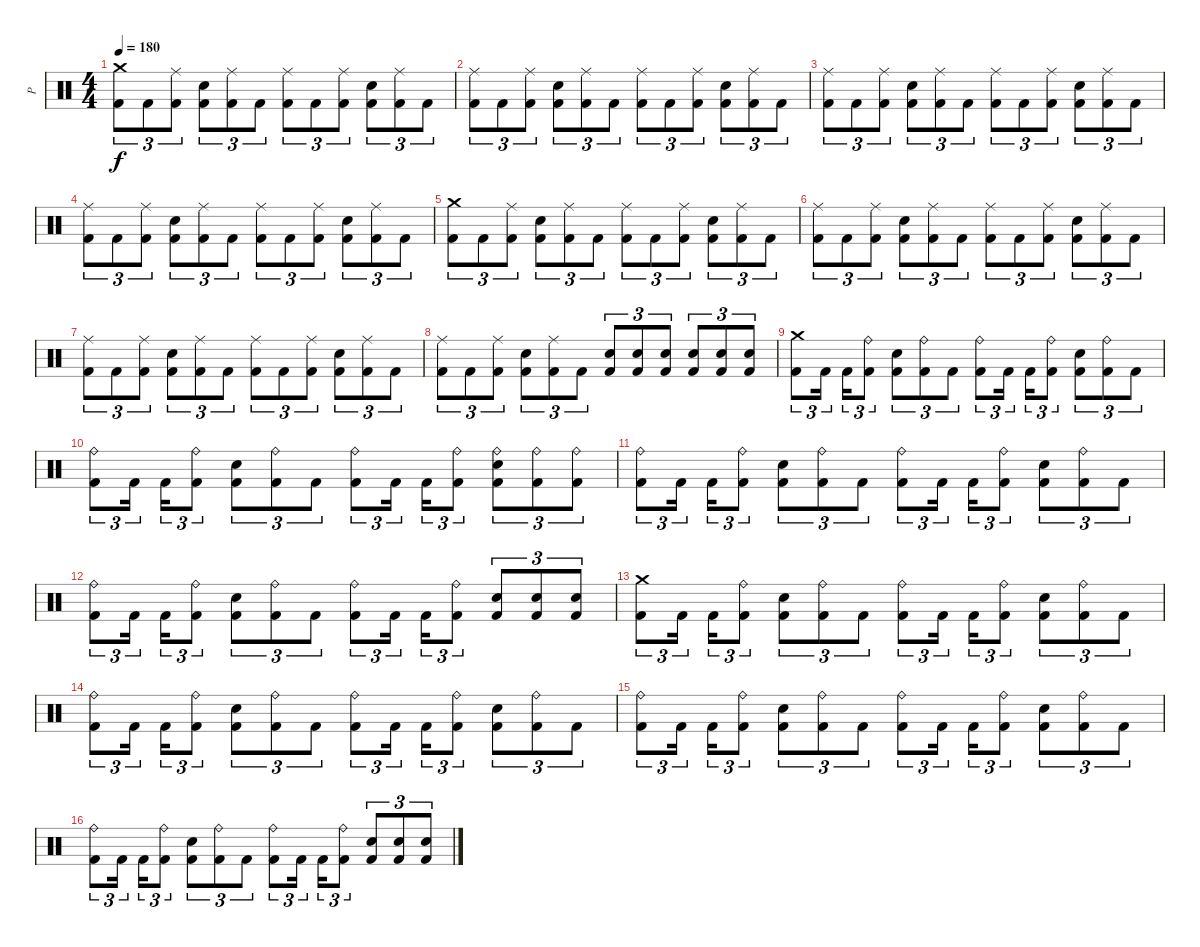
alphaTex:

\track ("P" "P") {instrument percussion}
\staff {score}
\articulation defaults
\ts (4 4)
\section ("" "")
\tempo 180
\clef neutral
\ks c
("Crash medium (hit)" "Kick (hit) 2").8{tu (3 2) dy f} "Kick (hit) 2".8{tu (3 2)} ("Ride (middle)" "Kick (hit) 2").8{tu (3 2)} ("Electric Snare (hit)" "Kick (hit) 2").8{tu (3 2)} ("Ride (middle)" "Kick (hit) 2").8{tu (3 2)} "Kick (hit) 2".8{tu (3 2)} ("Ride (middle)" "Kick (hit) 2").8{tu (3 2)} "Kick (hit) 2".8{tu (3 2)} ("Ride (middle)" "Kick (hit) 2").8{tu (3 2)} ("Electric Snare (hit)" "Kick (hit) 2").8{tu (3 2)} ("Ride (middle)" "Kick (hit) 2").8{tu (3 2)} "Kick (hit) 2".8{tu (3 2)} |
("Ride (middle)" "Kick (hit) 2").8{tu (3 2)} "Kick (hit) 2".8{tu (3 2)} ("Ride (middle)" "Kick (hit) 2").8{tu (3 2)} ("Electric Snare (hit)" "Kick (hit) 2").8{tu (3 2)} ("Ride (middle)" "Kick (hit) 2").8{tu (3 2)} "Kick (hit) 2".8{tu (3 2)} ("Ride (middle)" "Kick (hit) 2").8{tu (3 2)} "Kick (hit) 2".8{tu (3 2)} ("Ride (middle)" "Kick (hit) 2").8{tu (3 2)} ("Electric Snare (hit)" "Kick (hit) 2").8{tu (3 2)} ("Ride (middle)" "Kick (hit) 2").8{tu (3 2)} "Kick (hit) 2".8{tu (3 2)} |
("Ride (middle)" "Kick (hit) 2").8{tu (3 2)} "Kick (hit) 2".8{tu (3 2)} ("Ride (middle)" "Kick (hit) 2").8{tu (3 2)} ("Electric Snare (hit)" "Kick (hit) 2").8{tu (3 2)} ("Ride (middle)" "Kick (hit) 2").8{tu (3 2)} "Kick (hit) 2".8{tu (3 2)} ("Ride (middle)" "Kick (hit) 2").8{tu (3 2)} "Kick (hit) 2".8{tu (3 2)} ("Ride (middle)" "Kick (hit) 2").8{tu (3 2)} ("Electric Snare (hit)" "Kick (hit) 2").8{tu (3 2)} ("Ride (middle)" "Kick (hit) 2").8{tu (3 2)} "Kick (hit) 2".8{tu (3 2)} |
("Ride (middle)" "Kick (hit) 2").8{tu (3 2)} "Kick (hit) 2".8{tu (3 2)} ("Ride (middle)" "Kick (hit) 2").8{tu (3 2)} ("Electric Snare (hit)" "Kick (hit) 2").8{tu (3 2)} ("Ride (middle)" "Kick (hit) 2").8{tu (3 2)} "Kick (hit) 2".8{tu (3 2)} ("Ride (middle)" "Kick (hit) 2").8{tu (3 2)} "Kick (hit) 2".8{tu (3 2)} ("Ride (middle)" "Kick (hit) 2").8{tu (3 2)} ("Electric Snare (hit)" "Kick (hit) 2").8{tu (3 2)} ("Ride (middle)" "Kick (hit) 2").8{tu (3 2)} "Kick (hit) 2".8{tu (3 2)} |
("Crash medium (hit)" "Kick (hit) 2").8{tu (3 2)} "Kick (hit) 2".8{tu (3 2)} ("Ride (middle)" "Kick (hit) 2").8{tu (3 2)} ("Electric Snare (hit)" "Kick (hit) 2").8{tu (3 2)} ("Ride (middle)" "Kick (hit) 2").8{tu (3 2)} "Kick (hit) 2".8{tu (3 2)} ("Ride (middle)" "Kick (hit) 2").8{tu (3 2)} "Kick (hit) 2".8{tu (3 2)} ("Ride (middle)" "Kick (hit) 2").8{tu (3 2)} ("Electric Snare (hit)" "Kick (hit) 2").8{tu (3 2)} ("Ride (middle)" "Kick (hit) 2").8{tu (3 2)} "Kick (hit) 2".8{tu (3 2)} |
("Ride (middle)" "Kick (hit) 2").8{tu (3 2)} "Kick (hit) 2".8{tu (3 2)} ("Ride (middle)" "Kick (hit) 2").8{tu (3 2)} ("Electric Snare (hit)" "Kick (hit) 2").8{tu (3 2)} ("Ride (middle)" "Kick (hit) 2").8{tu (3 2)} "Kick (hit) 2".8{tu (3 2)} ("Ride (middle)" "Kick (hit) 2").8{tu (3 2)} "Kick (hit) 2".8{tu (3 2)} ("Ride (middle)" "Kick (hit) 2").8{tu (3 2)} ("Electric Snare (hit)" "Kick (hit) 2").8{tu (3 2)} ("Ride (middle)" "Kick (hit) 2").8{tu (3 2)} "Kick (hit) 2".8{tu (3 2)} |
("Ride (middle)" "Kick (hit) 2").8{tu (3 2)} "Kick (hit) 2".8{tu (3 2)} ("Ride (middle)" "Kick (hit) 2").8{tu (3 2)} ("Electric Snare (hit)" "Kick (hit) 2").8{tu (3 2)} ("Ride (middle)" "Kick (hit) 2").8{tu (3 2)} "Kick (hit) 2".8{tu (3 2)} ("Ride (middle)" "Kick (hit) 2").8{tu (3 2)} "Kick (hit) 2".8{tu (3 2)} ("Ride (middle)" "Kick (hit) 2").8{tu (3 2)} ("Electric Snare (hit)" "Kick (hit) 2").8{tu (3 2)} ("Ride (middle)" "Kick (hit) 2").8{tu (3 2)} "Kick (hit) 2".8{tu (3 2)} |
("Ride (middle)" "Kick (hit) 2").8{tu (3 2)} "Kick (hit) 2".8{tu (3 2)} ("Ride (middle)" "Kick (hit) 2").8{tu (3 2)} ("Electric Snare (hit)" "Kick (hit) 2").8{tu (3 2)} ("Ride (middle)" "Kick (hit) 2").8{tu (3 2)} "Kick (hit) 2".8{tu (3 2)} ("Electric Snare (hit)" "Kick (hit) 2").8{tu (3 2)} ("Electric Snare (hit)" "Kick (hit) 2").8{tu (3 2)} ("Electric Snare (hit)" "Kick (hit) 2").8{tu (3 2)} ("Electric Snare (hit)" "Kick (hit) 2").8{tu (3 2)} ("Electric Snare (hit)" "Kick (hit) 2").8{tu (3 2)} ("Electric Snare (hit)" "Kick (hit) 2").8{tu (3 2)} |
("Crash medium (hit)" "Kick (hit) 2").8{tu (3 2)} "Kick (hit) 2".16{tu (3 2)} "Kick (hit) 2".16{tu (3 2)} ("Ride (bell)" "Kick (hit) 2").8{tu (3 2)} ("Electric Snare (hit)" "Kick (hit) 2").8{tu (3 2)} ("Ride (bell)" "Kick (hit) 2").8{tu (3 2)} "Kick (hit) 2".8{tu (3 2)} ("Ride (bell)" "Kick (hit) 2").8{tu (3 2)} "Kick (hit) 2".16{tu (3 2)} "Kick (hit) 2".16{tu (3 2)} ("Ride (bell)" "Kick (hit) 2").8{tu (3 2)} ("Electric Snare (hit)" "Kick (hit) 2").8{tu (3 2)} ("Ride (bell)" "Kick (hit) 2").8{tu (3 2)} "Kick (hit) 2".8{tu (3 2)} |
("Ride (bell)" "Kick (hit) 2").8{tu (3 2)} "Kick (hit) 2".16{tu (3 2)} "Kick (hit) 2".16{tu (3 2)} ("Ride (bell)" "Kick (hit) 2").8{tu (3 2)} ("Electric Snare (hit)" "Kick (hit) 2").8{tu (3 2)} ("Ride (bell)" "Kick (hit) 2").8{tu (3 2)} "Kick (hit) 2".8{tu (3 2)} ("Ride (bell)" "Kick (hit) 2").8{tu (3 2)} "Kick (hit) 2".16{tu (3 2)} "Kick (hit) 2".16{tu (3 2)} ("Ride (bell)" "Kick (hit) 2").8{tu (3 2)} ("Ride (bell)" "Electric Snare (hit)" "Kick (hit) 2").8{tu (3 2)} ("Ride (bell)" "Kick (hit) 2").8{tu (3 2)} ("Ride (bell)" "Kick (hit) 2").8{tu (3 2)} |
("Ride (bell)" "Kick (hit) 2").8{tu (3 2)} "Kick (hit) 2".16{tu (3 2)} "Kick (hit) 2".16{tu (3 2)} ("Ride (bell)" "Kick (hit) 2").8{tu (3 2)} ("Electric Snare (hit)" "Kick (hit) 2").8{tu (3 2)} ("Ride (bell)" "Kick (hit) 2").8{tu (3 2)} "Kick (hit) 2".8{tu (3 2)} ("Ride (bell)" "Kick (hit) 2").8{tu (3 2)} "Kick (hit) 2".16{tu (3 2)} "Kick (hit) 2".16{tu (3 2)} ("Ride (bell)" "Kick (hit) 2").8{tu (3 2)} ("Electric Snare (hit)" "Kick (hit) 2").8{tu (3 2)} ("Ride (bell)" "Kick (hit) 2").8{tu (3 2)} "Kick (hit) 2".8{tu (3 2)} |
("Ride (bell)" "Kick (hit) 2").8{tu (3 2)} "Kick (hit) 2".16{tu (3 2)} "Kick (hit) 2".16{tu (3 2)} ("Ride (bell)" "Kick (hit) 2").8{tu (3 2)} ("Electric Snare (hit)" "Kick (hit) 2").8{tu (3 2)} ("Ride (bell)" "Kick (hit) 2").8{tu (3 2)} "Kick (hit) 2".8{tu (3 2)} ("Ride (bell)" "Kick (hit) 2").8{tu (3 2)} "Kick (hit) 2".16{tu (3 2)} "Kick (hit) 2".16{tu (3 2)} ("Ride (bell)" "Kick (hit) 2").8{tu (3 2)} ("Electric Snare (hit)" "Kick (hit) 2").8{tu (3 2)} ("Electric Snare (hit)" "Kick (hit) 2").8{tu (3 2)} ("Electric Snare (hit)" "Kick (hit) 2").8{tu (3 2)} |
("Crash medium (hit)" "Kick (hit) 2").8{tu (3 2)} "Kick (hit) 2".16{tu (3 2)} "Kick (hit) 2".16{tu (3 2)} ("Ride (bell)" "Kick (hit) 2").8{tu (3 2)} ("Electric Snare (hit)" "Kick (hit) 2").8{tu (3 2)} ("Ride (bell)" "Kick (hit) 2").8{tu (3 2)} "Kick (hit) 2".8{tu (3 2)} ("Ride (bell)" "Kick (hit) 2").8{tu (3 2)} "Kick (hit) 2".16{tu (3 2)} "Kick (hit) 2".16{tu (3 2)} ("Ride (bell)" "Kick (hit) 2").8{tu (3 2)} ("Electric Snare (hit)" "Kick (hit) 2").8{tu (3 2)} ("Ride (bell)" "Kick (hit) 2").8{tu (3 2)} "Kick (hit) 2".8{tu (3 2)} |
("Ride (bell)" "Kick (hit) 2").8{tu (3 2)} "Kick (hit) 2".16{tu (3 2)} "Kick (hit) 2".16{tu (3 2)} ("Ride (bell)" "Kick (hit) 2").8{tu (3 2)} ("Electric Snare (hit)" "Kick (hit) 2").8{tu (3 2)} ("Ride (bell)" "Kick (hit) 2").8{tu (3 2)} "Kick (hit) 2".8{tu (3 2)} ("Ride (bell)" "Kick (hit) 2").8{tu (3 2)} "Kick (hit) 2".16{tu (3 2)} "Kick (hit) 2".16{tu (3 2)} ("Ride (bell)" "Kick (hit) 2").8{tu (3 2)} ("Electric Snare (hit)" "Kick (hit) 2").8{tu (3 2)} ("Ride (bell)" "Kick (hit) 2").8{tu (3 2)} "Kick (hit) 2".8{tu (3 2)} |
("Ride (bell)" "Kick (hit) 2").8{tu (3 2)} "Kick (hit) 2".16{tu (3 2)} "Kick (hit) 2".16{tu (3 2)} ("Ride (bell)" "Kick (hit) 2").8{tu (3 2)} ("Electric Snare (hit)" "Kick (hit) 2").8{tu (3 2)} ("Ride (bell)" "Kick (hit) 2").8{tu (3 2)} "Kick (hit) 2".8{tu (3 2)} ("Ride (bell)" "Kick (hit) 2").8{tu (3 2)} "Kick (hit) 2".16{tu (3 2)} "Kick (hit) 2".16{tu (3 2)} ("Ride (bell)" "Kick (hit) 2").8{tu (3 2)} ("Electric Snare (hit)" "Kick (hit) 2").8{tu (3 2)} ("Ride (bell)" "Kick (hit) 2").8{tu (3 2)} "Kick (hit) 2".8{tu (3 2)} |
("Ride (bell)" "Kick (hit) 2").8{tu (3 2)} "Kick (hit) 2".16{tu (3 2)} "Kick (hit) 2".16{tu (3 2)} ("Ride (bell)" "Kick (hit) 2").8{tu (3 2)} ("Electric Snare (hit)" "Kick (hit) 2").8{tu (3 2)} ("Ride (bell)" "Kick (hit) 2").8{tu (3 2)} "Kick (hit) 2".8{tu (3 2)} ("Ride (bell)" "Kick (hit) 2").8{tu (3 2)} "Kick (hit) 2".16{tu (3 2)} "Kick (hit) 2".16{tu (3 2)} ("Ride (bell)" "Kick (hit) 2").8{tu (3 2)} ("Electric Snare (hit)" "Kick (hit) 2").8{tu (3 2)} ("Electric Snare (hit)" "Kick (hit) 2").8{tu (3 2)} ("Electric Snare (hit)" "Kick (hit) 2").8{tu (3 2)}
